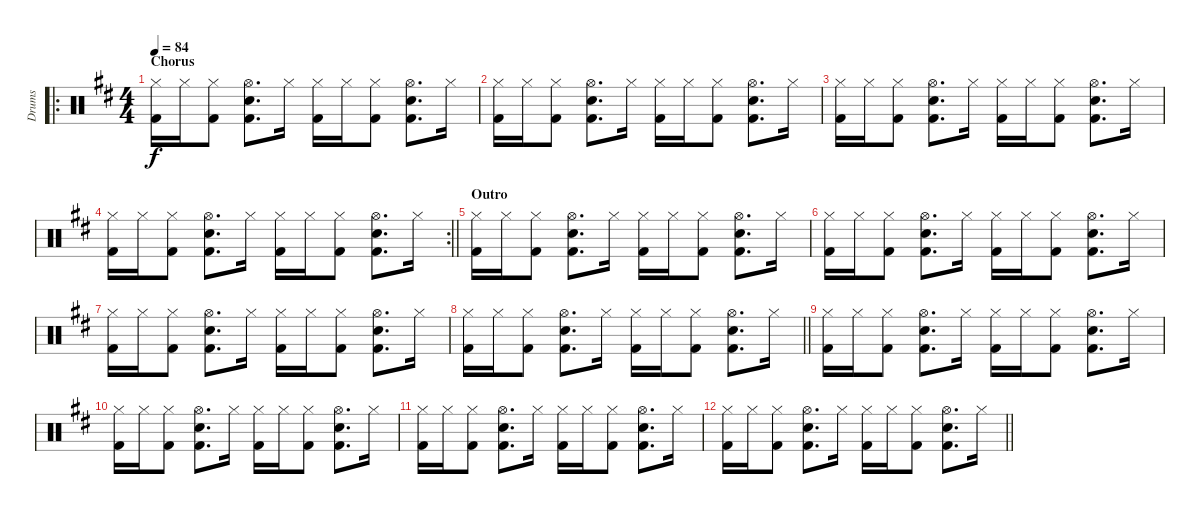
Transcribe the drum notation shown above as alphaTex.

\track ("Drums" "Drums") {instrument percussion}
\staff {score}
\articulation defaults
\ro
\ts (4 4)
\section ("" "Chorus")
\tempo 84
\clef neutral
\ks d
("Kick (hit) 2" "Hi-Hat (closed)").16{dy f} "Hi-Hat (closed)".16 ("Kick (hit) 2" "Hi-Hat (closed)").8 ("Kick (hit) 2" "Hi-Hat (open)" "Snare (hit) 2").8{d} "Hi-Hat (closed)".16 ("Kick (hit) 2" "Hi-Hat (closed)").16 "Hi-Hat (closed)".16 ("Kick (hit) 2" "Hi-Hat (closed)").8 ("Kick (hit) 2" "Hi-Hat (open)" "Snare (hit) 2").8{d} "Hi-Hat (closed)".16 |
("Kick (hit) 2" "Hi-Hat (closed)").16 "Hi-Hat (closed)".16 ("Kick (hit) 2" "Hi-Hat (closed)").8 ("Kick (hit) 2" "Hi-Hat (open)" "Snare (hit) 2").8{d} "Hi-Hat (closed)".16 ("Kick (hit) 2" "Hi-Hat (closed)").16 "Hi-Hat (closed)".16 ("Kick (hit) 2" "Hi-Hat (closed)").8 ("Kick (hit) 2" "Hi-Hat (open)" "Snare (hit) 2").8{d} "Hi-Hat (closed)".16 |
("Kick (hit) 2" "Hi-Hat (closed)").16 "Hi-Hat (closed)".16 ("Kick (hit) 2" "Hi-Hat (closed)").8 ("Kick (hit) 2" "Hi-Hat (open)" "Snare (hit) 2").8{d} "Hi-Hat (closed)".16 ("Kick (hit) 2" "Hi-Hat (closed)").16 "Hi-Hat (closed)".16 ("Kick (hit) 2" "Hi-Hat (closed)").8 ("Kick (hit) 2" "Hi-Hat (open)" "Snare (hit) 2").8{d} "Hi-Hat (closed)".16 |
\rc 2
\barLineRight lightlight
("Kick (hit) 2" "Hi-Hat (closed)").16 "Hi-Hat (closed)".16 ("Kick (hit) 2" "Hi-Hat (closed)").8 ("Kick (hit) 2" "Hi-Hat (open)" "Snare (hit) 2").8{d} "Hi-Hat (closed)".16 ("Kick (hit) 2" "Hi-Hat (closed)").16 "Hi-Hat (closed)".16 ("Kick (hit) 2" "Hi-Hat (closed)").8 ("Kick (hit) 2" "Hi-Hat (open)" "Snare (hit) 2").8{d} "Hi-Hat (closed)".16 |
\section ("" "Outro")
("Kick (hit) 2" "Hi-Hat (closed)").16 "Hi-Hat (closed)".16 ("Kick (hit) 2" "Hi-Hat (closed)").8 ("Kick (hit) 2" "Hi-Hat (open)" "Snare (hit) 2").8{d} "Hi-Hat (closed)".16 ("Kick (hit) 2" "Hi-Hat (closed)").16 "Hi-Hat (closed)".16 ("Kick (hit) 2" "Hi-Hat (closed)").8 ("Kick (hit) 2" "Hi-Hat (open)" "Snare (hit) 2").8{d} "Hi-Hat (closed)".16 |
("Kick (hit) 2" "Hi-Hat (closed)").16 "Hi-Hat (closed)".16 ("Kick (hit) 2" "Hi-Hat (closed)").8 ("Kick (hit) 2" "Hi-Hat (open)" "Snare (hit) 2").8{d} "Hi-Hat (closed)".16 ("Kick (hit) 2" "Hi-Hat (closed)").16 "Hi-Hat (closed)".16 ("Kick (hit) 2" "Hi-Hat (closed)").8 ("Kick (hit) 2" "Hi-Hat (open)" "Snare (hit) 2").8{d} "Hi-Hat (closed)".16 |
("Kick (hit) 2" "Hi-Hat (closed)").16 "Hi-Hat (closed)".16 ("Kick (hit) 2" "Hi-Hat (closed)").8 ("Kick (hit) 2" "Hi-Hat (open)" "Snare (hit) 2").8{d} "Hi-Hat (closed)".16 ("Kick (hit) 2" "Hi-Hat (closed)").16 "Hi-Hat (closed)".16 ("Kick (hit) 2" "Hi-Hat (closed)").8 ("Kick (hit) 2" "Hi-Hat (open)" "Snare (hit) 2").8{d} "Hi-Hat (closed)".16 |
\barLineRight lightlight
("Kick (hit) 2" "Hi-Hat (closed)").16 "Hi-Hat (closed)".16 ("Kick (hit) 2" "Hi-Hat (closed)").8 ("Kick (hit) 2" "Hi-Hat (open)" "Snare (hit) 2").8{d} "Hi-Hat (closed)".16 ("Kick (hit) 2" "Hi-Hat (closed)").16 "Hi-Hat (closed)".16 ("Kick (hit) 2" "Hi-Hat (closed)").8 ("Kick (hit) 2" "Hi-Hat (open)" "Snare (hit) 2").8{d} "Hi-Hat (closed)".16 |
("Kick (hit) 2" "Hi-Hat (closed)").16 "Hi-Hat (closed)".16 ("Kick (hit) 2" "Hi-Hat (closed)").8 ("Kick (hit) 2" "Hi-Hat (open)" "Snare (hit) 2").8{d} "Hi-Hat (closed)".16 ("Kick (hit) 2" "Hi-Hat (closed)").16 "Hi-Hat (closed)".16 ("Kick (hit) 2" "Hi-Hat (closed)").8 ("Kick (hit) 2" "Hi-Hat (open)" "Snare (hit) 2").8{d} "Hi-Hat (closed)".16 |
("Kick (hit) 2" "Hi-Hat (closed)").16 "Hi-Hat (closed)".16 ("Kick (hit) 2" "Hi-Hat (closed)").8 ("Kick (hit) 2" "Hi-Hat (open)" "Snare (hit) 2").8{d} "Hi-Hat (closed)".16 ("Kick (hit) 2" "Hi-Hat (closed)").16 "Hi-Hat (closed)".16 ("Kick (hit) 2" "Hi-Hat (closed)").8 ("Kick (hit) 2" "Hi-Hat (open)" "Snare (hit) 2").8{d} "Hi-Hat (closed)".16 |
("Kick (hit) 2" "Hi-Hat (closed)").16 "Hi-Hat (closed)".16 ("Kick (hit) 2" "Hi-Hat (closed)").8 ("Kick (hit) 2" "Hi-Hat (open)" "Snare (hit) 2").8{d} "Hi-Hat (closed)".16 ("Kick (hit) 2" "Hi-Hat (closed)").16 "Hi-Hat (closed)".16 ("Kick (hit) 2" "Hi-Hat (closed)").8 ("Kick (hit) 2" "Hi-Hat (open)" "Snare (hit) 2").8{d} "Hi-Hat (closed)".16 |
\barLineRight lightlight
("Kick (hit) 2" "Hi-Hat (closed)").16 "Hi-Hat (closed)".16 ("Kick (hit) 2" "Hi-Hat (closed)").8 ("Kick (hit) 2" "Hi-Hat (open)" "Snare (hit) 2").8{d} "Hi-Hat (closed)".16 ("Kick (hit) 2" "Hi-Hat (closed)").16 "Hi-Hat (closed)".16 ("Kick (hit) 2" "Hi-Hat (closed)").8 ("Kick (hit) 2" "Hi-Hat (open)" "Snare (hit) 2").8{d} "Hi-Hat (closed)".16
